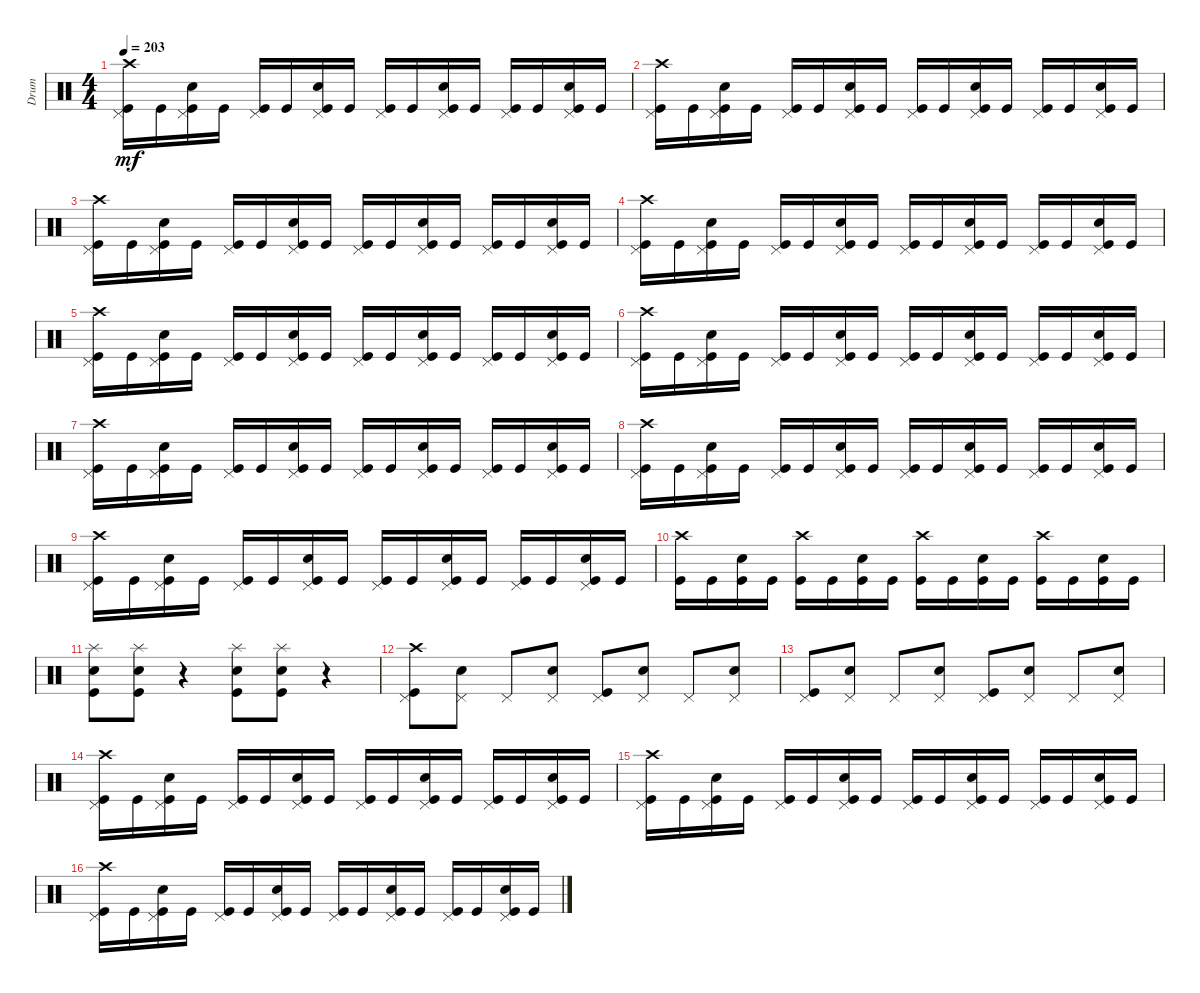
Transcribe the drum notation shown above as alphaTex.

\track ("Drum" "Drum") {instrument percussion}
\staff {score}
\articulation defaults
\ts (4 4)
\tempo 203
\clef neutral
\ks c
("Crash high (hit)" "Pedal Hi-Hat (hit)" "Kick (hit)").16{dy mf} "Kick (hit)".16 ("Pedal Hi-Hat (hit)" "Snare (hit) 2" "Kick (hit)").16 "Kick (hit)".16 ("Pedal Hi-Hat (hit)" "Kick (hit)").16 "Kick (hit)".16 ("Pedal Hi-Hat (hit)" "Snare (hit) 2" "Kick (hit)").16 "Kick (hit)".16 ("Pedal Hi-Hat (hit)" "Kick (hit)").16 "Kick (hit)".16 ("Pedal Hi-Hat (hit)" "Snare (hit) 2" "Kick (hit)").16 "Kick (hit)".16 ("Pedal Hi-Hat (hit)" "Kick (hit)").16 "Kick (hit)".16 ("Pedal Hi-Hat (hit)" "Snare (hit) 2" "Kick (hit)").16 "Kick (hit)".16 |
("Crash high (hit)" "Pedal Hi-Hat (hit)" "Kick (hit)").16 "Kick (hit)".16 ("Pedal Hi-Hat (hit)" "Snare (hit) 2" "Kick (hit)").16 "Kick (hit)".16 ("Pedal Hi-Hat (hit)" "Kick (hit)").16 "Kick (hit)".16 ("Pedal Hi-Hat (hit)" "Snare (hit) 2" "Kick (hit)").16 "Kick (hit)".16 ("Pedal Hi-Hat (hit)" "Kick (hit)").16 "Kick (hit)".16 ("Pedal Hi-Hat (hit)" "Snare (hit) 2" "Kick (hit)").16 "Kick (hit)".16 ("Pedal Hi-Hat (hit)" "Kick (hit)").16 "Kick (hit)".16 ("Pedal Hi-Hat (hit)" "Snare (hit) 2" "Kick (hit)").16 "Kick (hit)".16 |
("Crash high (hit)" "Pedal Hi-Hat (hit)" "Kick (hit)").16 "Kick (hit)".16 ("Pedal Hi-Hat (hit)" "Snare (hit) 2" "Kick (hit)").16 "Kick (hit)".16 ("Pedal Hi-Hat (hit)" "Kick (hit)").16 "Kick (hit)".16 ("Pedal Hi-Hat (hit)" "Snare (hit) 2" "Kick (hit)").16 "Kick (hit)".16 ("Pedal Hi-Hat (hit)" "Kick (hit)").16 "Kick (hit)".16 ("Pedal Hi-Hat (hit)" "Snare (hit) 2" "Kick (hit)").16 "Kick (hit)".16 ("Pedal Hi-Hat (hit)" "Kick (hit)").16 "Kick (hit)".16 ("Pedal Hi-Hat (hit)" "Snare (hit) 2" "Kick (hit)").16 "Kick (hit)".16 |
("Crash high (hit)" "Pedal Hi-Hat (hit)" "Kick (hit)").16 "Kick (hit)".16 ("Pedal Hi-Hat (hit)" "Snare (hit) 2" "Kick (hit)").16 "Kick (hit)".16 ("Pedal Hi-Hat (hit)" "Kick (hit)").16 "Kick (hit)".16 ("Pedal Hi-Hat (hit)" "Snare (hit) 2" "Kick (hit)").16 "Kick (hit)".16 ("Pedal Hi-Hat (hit)" "Kick (hit)").16 "Kick (hit)".16 ("Pedal Hi-Hat (hit)" "Snare (hit) 2" "Kick (hit)").16 "Kick (hit)".16 ("Pedal Hi-Hat (hit)" "Kick (hit)").16 "Kick (hit)".16 ("Pedal Hi-Hat (hit)" "Snare (hit) 2" "Kick (hit)").16 "Kick (hit)".16 |
("Crash high (hit)" "Pedal Hi-Hat (hit)" "Kick (hit)").16 "Kick (hit)".16 ("Pedal Hi-Hat (hit)" "Snare (hit) 2" "Kick (hit)").16 "Kick (hit)".16 ("Pedal Hi-Hat (hit)" "Kick (hit)").16 "Kick (hit)".16 ("Pedal Hi-Hat (hit)" "Snare (hit) 2" "Kick (hit)").16 "Kick (hit)".16 ("Pedal Hi-Hat (hit)" "Kick (hit)").16 "Kick (hit)".16 ("Pedal Hi-Hat (hit)" "Snare (hit) 2" "Kick (hit)").16 "Kick (hit)".16 ("Pedal Hi-Hat (hit)" "Kick (hit)").16 "Kick (hit)".16 ("Pedal Hi-Hat (hit)" "Snare (hit) 2" "Kick (hit)").16 "Kick (hit)".16 |
("Crash high (hit)" "Pedal Hi-Hat (hit)" "Kick (hit)").16 "Kick (hit)".16 ("Pedal Hi-Hat (hit)" "Snare (hit) 2" "Kick (hit)").16 "Kick (hit)".16 ("Pedal Hi-Hat (hit)" "Kick (hit)").16 "Kick (hit)".16 ("Pedal Hi-Hat (hit)" "Snare (hit) 2" "Kick (hit)").16 "Kick (hit)".16 ("Pedal Hi-Hat (hit)" "Kick (hit)").16 "Kick (hit)".16 ("Pedal Hi-Hat (hit)" "Snare (hit) 2" "Kick (hit)").16 "Kick (hit)".16 ("Pedal Hi-Hat (hit)" "Kick (hit)").16 "Kick (hit)".16 ("Pedal Hi-Hat (hit)" "Snare (hit) 2" "Kick (hit)").16 "Kick (hit)".16 |
("Crash high (hit)" "Pedal Hi-Hat (hit)" "Kick (hit)").16 "Kick (hit)".16 ("Pedal Hi-Hat (hit)" "Snare (hit) 2" "Kick (hit)").16 "Kick (hit)".16 ("Pedal Hi-Hat (hit)" "Kick (hit)").16 "Kick (hit)".16 ("Pedal Hi-Hat (hit)" "Snare (hit) 2" "Kick (hit)").16 "Kick (hit)".16 ("Pedal Hi-Hat (hit)" "Kick (hit)").16 "Kick (hit)".16 ("Pedal Hi-Hat (hit)" "Snare (hit) 2" "Kick (hit)").16 "Kick (hit)".16 ("Pedal Hi-Hat (hit)" "Kick (hit)").16 "Kick (hit)".16 ("Pedal Hi-Hat (hit)" "Snare (hit) 2" "Kick (hit)").16 "Kick (hit)".16 |
("Crash high (hit)" "Pedal Hi-Hat (hit)" "Kick (hit)").16 "Kick (hit)".16 ("Pedal Hi-Hat (hit)" "Snare (hit) 2" "Kick (hit)").16 "Kick (hit)".16 ("Pedal Hi-Hat (hit)" "Kick (hit)").16 "Kick (hit)".16 ("Pedal Hi-Hat (hit)" "Snare (hit) 2" "Kick (hit)").16 "Kick (hit)".16 ("Pedal Hi-Hat (hit)" "Kick (hit)").16 "Kick (hit)".16 ("Pedal Hi-Hat (hit)" "Snare (hit) 2" "Kick (hit)").16 "Kick (hit)".16 ("Pedal Hi-Hat (hit)" "Kick (hit)").16 "Kick (hit)".16 ("Pedal Hi-Hat (hit)" "Snare (hit) 2" "Kick (hit)").16 "Kick (hit)".16 |
("Crash high (hit)" "Pedal Hi-Hat (hit)" "Kick (hit)").16 "Kick (hit)".16 ("Pedal Hi-Hat (hit)" "Snare (hit) 2" "Kick (hit)").16 "Kick (hit)".16 ("Pedal Hi-Hat (hit)" "Kick (hit)").16 "Kick (hit)".16 ("Pedal Hi-Hat (hit)" "Snare (hit) 2" "Kick (hit)").16 "Kick (hit)".16 ("Pedal Hi-Hat (hit)" "Kick (hit)").16 "Kick (hit)".16 ("Pedal Hi-Hat (hit)" "Snare (hit) 2" "Kick (hit)").16 "Kick (hit)".16 ("Pedal Hi-Hat (hit)" "Kick (hit)").16 "Kick (hit)".16 ("Pedal Hi-Hat (hit)" "Snare (hit) 2" "Kick (hit)").16 "Kick (hit)".16 |
("Crash high (hit)" "Kick (hit)").16 "Kick (hit)".16 ("Snare (hit) 2" "Kick (hit)").16 "Kick (hit)".16 ("Crash high (hit)" "Kick (hit)").16 "Kick (hit)".16 ("Snare (hit) 2" "Kick (hit)").16 "Kick (hit)".16 ("Crash high (hit)" "Kick (hit)").16 "Kick (hit)".16 ("Snare (hit) 2" "Kick (hit)").16 "Kick (hit)".16 ("Crash high (hit)" "Kick (hit)").16 "Kick (hit)".16 ("Snare (hit) 2" "Kick (hit)").16 "Kick (hit)".16 |
("Splash (hit)" "Snare (hit) 2" "Kick (hit)").8 ("Splash (hit)" "Snare (hit) 2" "Kick (hit)").8 r.4 ("Splash (hit)" "Kick (hit)" "Snare (hit) 2").8 ("Splash (hit)" "Kick (hit)" "Snare (hit) 2").8 r.4 |
("Pedal Hi-Hat (hit)" "Kick (hit)" "Crash high (hit)").8 ("Pedal Hi-Hat (hit)" "Snare (hit) 2").8 "Pedal Hi-Hat (hit)".8 ("Pedal Hi-Hat (hit)" "Snare (hit) 2").8 ("Pedal Hi-Hat (hit)" "Kick (hit)").8 ("Pedal Hi-Hat (hit)" "Snare (hit) 2").8 "Pedal Hi-Hat (hit)".8 ("Pedal Hi-Hat (hit)" "Snare (hit) 2").8 |
("Pedal Hi-Hat (hit)" "Kick (hit)").8 ("Pedal Hi-Hat (hit)" "Snare (hit) 2").8 "Pedal Hi-Hat (hit)".8 ("Pedal Hi-Hat (hit)" "Snare (hit) 2").8 ("Pedal Hi-Hat (hit)" "Kick (hit)").8 ("Pedal Hi-Hat (hit)" "Snare (hit) 2").8 "Pedal Hi-Hat (hit)".8 ("Pedal Hi-Hat (hit)" "Snare (hit) 2").8 |
("Crash high (hit)" "Pedal Hi-Hat (hit)" "Kick (hit)").16 "Kick (hit)".16 ("Pedal Hi-Hat (hit)" "Snare (hit) 2" "Kick (hit)").16 "Kick (hit)".16 ("Pedal Hi-Hat (hit)" "Kick (hit)").16 "Kick (hit)".16 ("Pedal Hi-Hat (hit)" "Snare (hit) 2" "Kick (hit)").16 "Kick (hit)".16 ("Pedal Hi-Hat (hit)" "Kick (hit)").16 "Kick (hit)".16 ("Pedal Hi-Hat (hit)" "Snare (hit) 2" "Kick (hit)").16 "Kick (hit)".16 ("Pedal Hi-Hat (hit)" "Kick (hit)").16 "Kick (hit)".16 ("Pedal Hi-Hat (hit)" "Snare (hit) 2" "Kick (hit)").16 "Kick (hit)".16 |
("Crash high (hit)" "Pedal Hi-Hat (hit)" "Kick (hit)").16 "Kick (hit)".16 ("Pedal Hi-Hat (hit)" "Snare (hit) 2" "Kick (hit)").16 "Kick (hit)".16 ("Pedal Hi-Hat (hit)" "Kick (hit)").16 "Kick (hit)".16 ("Pedal Hi-Hat (hit)" "Snare (hit) 2" "Kick (hit)").16 "Kick (hit)".16 ("Pedal Hi-Hat (hit)" "Kick (hit)").16 "Kick (hit)".16 ("Pedal Hi-Hat (hit)" "Snare (hit) 2" "Kick (hit)").16 "Kick (hit)".16 ("Pedal Hi-Hat (hit)" "Kick (hit)").16 "Kick (hit)".16 ("Pedal Hi-Hat (hit)" "Snare (hit) 2" "Kick (hit)").16 "Kick (hit)".16 |
("Crash high (hit)" "Pedal Hi-Hat (hit)" "Kick (hit)").16 "Kick (hit)".16 ("Pedal Hi-Hat (hit)" "Snare (hit) 2" "Kick (hit)").16 "Kick (hit)".16 ("Pedal Hi-Hat (hit)" "Kick (hit)").16 "Kick (hit)".16 ("Pedal Hi-Hat (hit)" "Snare (hit) 2" "Kick (hit)").16 "Kick (hit)".16 ("Pedal Hi-Hat (hit)" "Kick (hit)").16 "Kick (hit)".16 ("Pedal Hi-Hat (hit)" "Snare (hit) 2" "Kick (hit)").16 "Kick (hit)".16 ("Pedal Hi-Hat (hit)" "Kick (hit)").16 "Kick (hit)".16 ("Pedal Hi-Hat (hit)" "Snare (hit) 2" "Kick (hit)").16 "Kick (hit)".16
